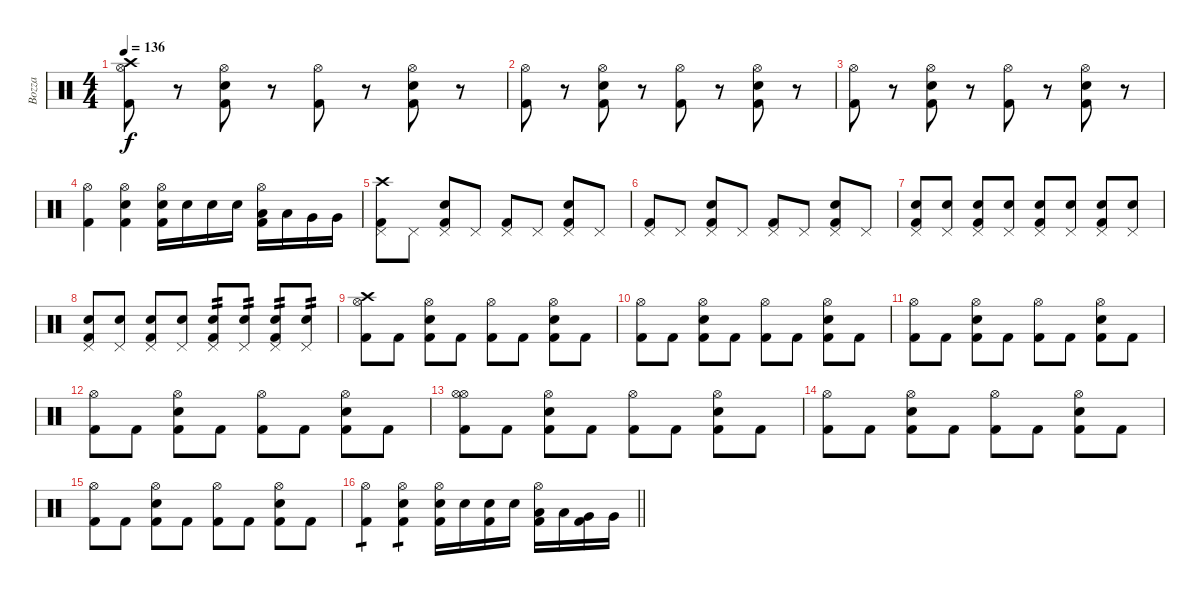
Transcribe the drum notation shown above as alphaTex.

\track ("Bozza" "Bozza") {instrument percussion}
\staff {score}
\articulation defaults
\ts (4 4)
\tempo 136
\clef neutral
\ks c
("Crash high (hit)" "Hi-Hat (open)" "Kick (hit) 2").8{dy f} r.8 ("Hi-Hat (open)" "Snare (hit) 2" "Kick (hit) 2").8 r.8 ("Hi-Hat (open)" "Kick (hit) 2").8 r.8 ("Hi-Hat (open)" "Snare (hit) 2" "Kick (hit) 2").8 r.8 |
("Hi-Hat (open)" "Kick (hit) 2").8 r.8 ("Hi-Hat (open)" "Snare (hit) 2" "Kick (hit) 2").8 r.8 ("Hi-Hat (open)" "Kick (hit) 2").8 r.8 ("Hi-Hat (open)" "Snare (hit) 2" "Kick (hit) 2").8 r.8 |
("Hi-Hat (open)" "Kick (hit) 2").8 r.8 ("Hi-Hat (open)" "Snare (hit) 2" "Kick (hit) 2").8 r.8 ("Hi-Hat (open)" "Kick (hit) 2").8 r.8 ("Hi-Hat (open)" "Snare (hit) 2" "Kick (hit) 2").8 r.8 |
("Hi-Hat (open)" "Kick (hit) 2").4 ("Hi-Hat (open)" "Snare (hit) 2" "Kick (hit) 2").4 ("Hi-Hat (open)" "Snare (hit) 2" "Kick (hit) 2").16 "Snare (hit) 2".16 "Snare (hit) 2".16 "Snare (hit) 2".16 ("Hi-Hat (open)" "Low Tom (hit)" "Kick (hit) 2").16 "Low Tom (hit)".16 "Very Low Tom (hit)".16 "Very Low Tom (hit)".16 |
("Crash high (hit)" "Pedal Hi-Hat (hit)" "Kick (hit) 2").8 "Pedal Hi-Hat (hit)".8 ("Pedal Hi-Hat (hit)" "Snare (hit) 2" "Kick (hit) 2").8 "Pedal Hi-Hat (hit)".8 ("Pedal Hi-Hat (hit)" "Kick (hit) 2").8 "Pedal Hi-Hat (hit)".8 ("Pedal Hi-Hat (hit)" "Snare (hit) 2" "Kick (hit) 2").8 "Pedal Hi-Hat (hit)".8 |
("Pedal Hi-Hat (hit)" "Kick (hit) 2").8 "Pedal Hi-Hat (hit)".8 ("Pedal Hi-Hat (hit)" "Snare (hit) 2" "Kick (hit) 2").8 "Pedal Hi-Hat (hit)".8 ("Pedal Hi-Hat (hit)" "Kick (hit) 2").8 "Pedal Hi-Hat (hit)".8 ("Pedal Hi-Hat (hit)" "Snare (hit) 2" "Kick (hit) 2").8 "Pedal Hi-Hat (hit)".8 |
("Pedal Hi-Hat (hit)" "Snare (hit) 2" "Kick (hit) 2").8 ("Pedal Hi-Hat (hit)" "Snare (hit) 2").8 ("Pedal Hi-Hat (hit)" "Snare (hit) 2" "Kick (hit) 2").8 ("Pedal Hi-Hat (hit)" "Snare (hit) 2").8 ("Pedal Hi-Hat (hit)" "Snare (hit) 2" "Kick (hit) 2").8 ("Pedal Hi-Hat (hit)" "Snare (hit) 2").8 ("Pedal Hi-Hat (hit)" "Snare (hit) 2" "Kick (hit) 2").8 ("Pedal Hi-Hat (hit)" "Snare (hit) 2").8 |
("Pedal Hi-Hat (hit)" "Snare (hit) 2" "Kick (hit) 2").8 ("Pedal Hi-Hat (hit)" "Snare (hit) 2").8 ("Pedal Hi-Hat (hit)" "Snare (hit) 2" "Kick (hit) 2").8 ("Pedal Hi-Hat (hit)" "Snare (hit) 2").8 ("Pedal Hi-Hat (hit)" "Snare (hit) 2" "Kick (hit) 2").8{tp 2} ("Pedal Hi-Hat (hit)" "Snare (hit) 2").8{tp 2} ("Pedal Hi-Hat (hit)" "Snare (hit) 2" "Kick (hit) 2").8{tp 2} ("Pedal Hi-Hat (hit)" "Snare (hit) 2").8{tp 2} |
("Crash high (hit)" "Hi-Hat (open)" "Kick (hit) 2").8 "Kick (hit) 2".8 ("Hi-Hat (open)" "Snare (hit) 2" "Kick (hit) 2").8 "Kick (hit) 2".8 ("Hi-Hat (open)" "Kick (hit) 2").8 "Kick (hit) 2".8 ("Hi-Hat (open)" "Snare (hit) 2" "Kick (hit) 2").8 "Kick (hit) 2".8 |
("Hi-Hat (open)" "Kick (hit) 2").8 "Kick (hit) 2".8 ("Hi-Hat (open)" "Snare (hit) 2" "Kick (hit) 2").8 "Kick (hit) 2".8 ("Hi-Hat (open)" "Kick (hit) 2").8 "Kick (hit) 2".8 ("Hi-Hat (open)" "Snare (hit) 2" "Kick (hit) 2").8 "Kick (hit) 2".8 |
("Hi-Hat (open)" "Kick (hit) 2").8 "Kick (hit) 2".8 ("Hi-Hat (open)" "Snare (hit) 2" "Kick (hit) 2").8 "Kick (hit) 2".8 ("Hi-Hat (open)" "Kick (hit) 2").8 "Kick (hit) 2".8 ("Hi-Hat (open)" "Snare (hit) 2" "Kick (hit) 2").8 "Kick (hit) 2".8 |
("Hi-Hat (open)" "Kick (hit) 2").8 "Kick (hit) 2".8 ("Hi-Hat (open)" "Snare (hit) 2" "Kick (hit) 2").8 "Kick (hit) 2".8 ("Hi-Hat (open)" "Kick (hit) 2").8 "Kick (hit) 2".8 ("Hi-Hat (open)" "Snare (hit) 2" "Kick (hit) 2").8 "Kick (hit) 2".8 |
("Hi-Hat (open)" "Hi-Hat (open)" "Kick (hit) 2").8 "Kick (hit) 2".8 ("Hi-Hat (open)" "Snare (hit) 2" "Kick (hit) 2").8 "Kick (hit) 2".8 ("Hi-Hat (open)" "Kick (hit) 2").8 "Kick (hit) 2".8 ("Hi-Hat (open)" "Snare (hit) 2" "Kick (hit) 2").8 "Kick (hit) 2".8 |
("Hi-Hat (open)" "Kick (hit) 2").8 "Kick (hit) 2".8 ("Hi-Hat (open)" "Snare (hit) 2" "Kick (hit) 2").8 "Kick (hit) 2".8 ("Hi-Hat (open)" "Kick (hit) 2").8 "Kick (hit) 2".8 ("Hi-Hat (open)" "Snare (hit) 2" "Kick (hit) 2").8 "Kick (hit) 2".8 |
("Hi-Hat (open)" "Kick (hit) 2").8 "Kick (hit) 2".8 ("Hi-Hat (open)" "Snare (hit) 2" "Kick (hit) 2").8 "Kick (hit) 2".8 ("Hi-Hat (open)" "Kick (hit) 2").8 "Kick (hit) 2".8 ("Hi-Hat (open)" "Snare (hit) 2" "Kick (hit) 2").8 "Kick (hit) 2".8 |
\barLineRight lightlight
("Hi-Hat (open)" "Kick (hit) 2").4{tp 1} ("Hi-Hat (open)" "Snare (hit) 2" "Kick (hit) 2").4{tp 1} ("Hi-Hat (open)" "Snare (hit) 2" "Kick (hit) 2").16 "Snare (hit) 2".16 ("Snare (hit) 2" "Kick (hit) 2").16 "Snare (hit) 2".16 ("Hi-Hat (open)" "Low Tom (hit)" "Kick (hit) 2").16 "Low Tom (hit)".16 ("Very Low Tom (hit)" "Kick (hit) 2").16 "Very Low Tom (hit)".16
